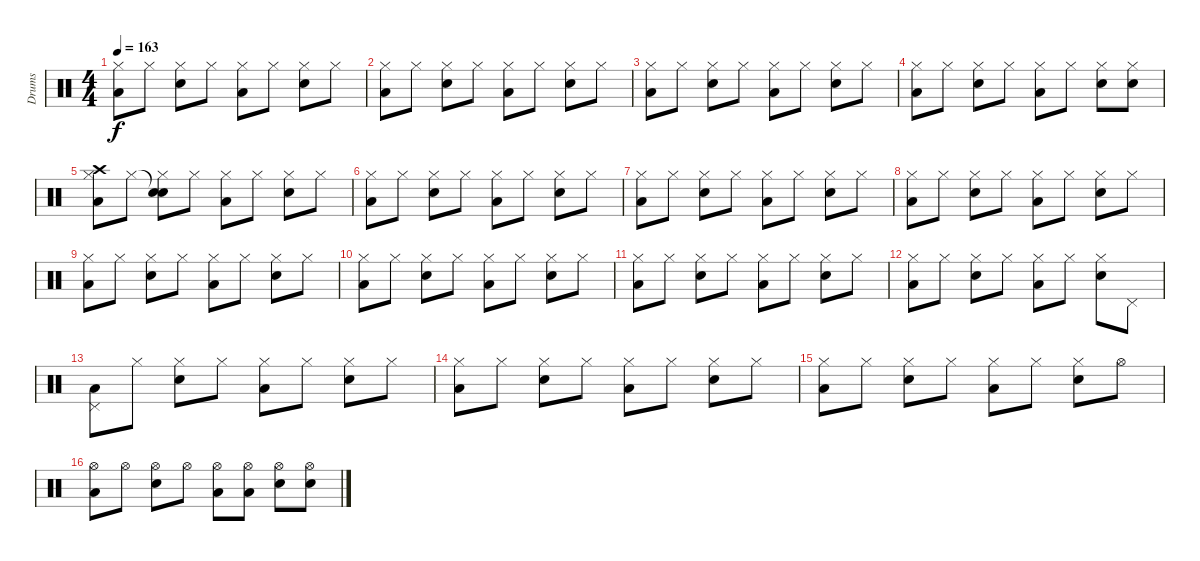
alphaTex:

\track ("Drums" "Drums") {instrument percussion}
\staff {score}
\articulation defaults
\ts (4 4)
\tempo 163
\clef neutral
\ks c
("Low Tom (hit)" "Hi-Hat (closed)").8{dy f} "Hi-Hat (closed)".8 ("Snare (hit) 2" "Hi-Hat (closed)").8 "Hi-Hat (closed)".8 ("Low Tom (hit)" "Hi-Hat (closed)").8 "Hi-Hat (closed)".8 ("Snare (hit) 2" "Hi-Hat (closed)").8 "Hi-Hat (closed)".8 |
("Low Tom (hit)" "Hi-Hat (closed)").8 "Hi-Hat (closed)".8 ("Snare (hit) 2" "Hi-Hat (closed)").8 "Hi-Hat (closed)".8 ("Low Tom (hit)" "Hi-Hat (closed)").8 "Hi-Hat (closed)".8 ("Snare (hit) 2" "Hi-Hat (closed)").8 "Hi-Hat (closed)".8 |
("Low Tom (hit)" "Hi-Hat (closed)").8 "Hi-Hat (closed)".8 ("Snare (hit) 2" "Hi-Hat (closed)").8 "Hi-Hat (closed)".8 ("Low Tom (hit)" "Hi-Hat (closed)").8 "Hi-Hat (closed)".8 ("Snare (hit) 2" "Hi-Hat (closed)").8 "Hi-Hat (closed)".8 |
("Low Tom (hit)" "Hi-Hat (closed)").8 "Hi-Hat (closed)".8 ("Snare (hit) 2" "Hi-Hat (closed)").8 "Hi-Hat (closed)".8 ("Low Tom (hit)" "Hi-Hat (closed)").8 "Hi-Hat (closed)".8 ("Snare (hit) 2" "Hi-Hat (closed)").8 ("Snare (hit) 2" "Hi-Hat (closed)").8 |
("Crash high (hit)" "Low Tom (hit)" "Hi-Hat (closed)").8 "Hi-Hat (closed)".8 ("Snare (hit)"{t} "Snare (hit) 2" "Hi-Hat (closed)").8 "Hi-Hat (closed)".8 ("Low Tom (hit)" "Hi-Hat (closed)").8 "Hi-Hat (closed)".8 ("Snare (hit) 2" "Hi-Hat (closed)").8 "Hi-Hat (closed)".8 |
("Low Tom (hit)" "Hi-Hat (closed)").8 "Hi-Hat (closed)".8 ("Snare (hit) 2" "Hi-Hat (closed)").8 "Hi-Hat (closed)".8 ("Low Tom (hit)" "Hi-Hat (closed)").8 "Hi-Hat (closed)".8 ("Snare (hit) 2" "Hi-Hat (closed)").8 "Hi-Hat (closed)".8 |
("Low Tom (hit)" "Hi-Hat (closed)").8 "Hi-Hat (closed)".8 ("Snare (hit) 2" "Hi-Hat (closed)").8 "Hi-Hat (closed)".8 ("Low Tom (hit)" "Hi-Hat (closed)").8 "Hi-Hat (closed)".8 ("Snare (hit) 2" "Hi-Hat (closed)").8 "Hi-Hat (closed)".8 |
("Low Tom (hit)" "Hi-Hat (closed)").8 "Hi-Hat (closed)".8 ("Snare (hit) 2" "Hi-Hat (closed)").8 "Hi-Hat (closed)".8 ("Low Tom (hit)" "Hi-Hat (closed)").8 "Hi-Hat (closed)".8 ("Snare (hit) 2" "Hi-Hat (closed)").8 "Hi-Hat (closed)".8 |
("Low Tom (hit)" "Hi-Hat (closed)").8 "Hi-Hat (closed)".8 ("Snare (hit) 2" "Hi-Hat (closed)").8 "Hi-Hat (closed)".8 ("Low Tom (hit)" "Hi-Hat (closed)").8 "Hi-Hat (closed)".8 ("Snare (hit) 2" "Hi-Hat (closed)").8 "Hi-Hat (closed)".8 |
("Low Tom (hit)" "Hi-Hat (closed)").8 "Hi-Hat (closed)".8 ("Snare (hit) 2" "Hi-Hat (closed)").8 "Hi-Hat (closed)".8 ("Low Tom (hit)" "Hi-Hat (closed)").8 "Hi-Hat (closed)".8 ("Snare (hit) 2" "Hi-Hat (closed)").8 "Hi-Hat (closed)".8 |
("Low Tom (hit)" "Hi-Hat (closed)").8 "Hi-Hat (closed)".8 ("Snare (hit) 2" "Hi-Hat (closed)").8 "Hi-Hat (closed)".8 ("Low Tom (hit)" "Hi-Hat (closed)").8 "Hi-Hat (closed)".8 ("Snare (hit) 2" "Hi-Hat (closed)").8 "Hi-Hat (closed)".8 |
("Low Tom (hit)" "Hi-Hat (closed)").8 "Hi-Hat (closed)".8 ("Snare (hit) 2" "Hi-Hat (closed)").8 "Hi-Hat (closed)".8 ("Low Tom (hit)" "Hi-Hat (closed)").8 "Hi-Hat (closed)".8 ("Snare (hit) 2" "Hi-Hat (closed)").8 "Pedal Hi-Hat (hit)".8 |
("Low Tom (hit)" "Pedal Hi-Hat (hit)").8 "Hi-Hat (closed)".8 ("Snare (hit) 2" "Hi-Hat (closed)").8 "Hi-Hat (closed)".8 ("Low Tom (hit)" "Hi-Hat (closed)").8 "Hi-Hat (closed)".8 ("Snare (hit) 2" "Hi-Hat (closed)").8 "Hi-Hat (closed)".8 |
("Low Tom (hit)" "Hi-Hat (closed)").8 "Hi-Hat (closed)".8 ("Snare (hit) 2" "Hi-Hat (closed)").8 "Hi-Hat (closed)".8 ("Low Tom (hit)" "Hi-Hat (closed)").8 "Hi-Hat (closed)".8 ("Snare (hit) 2" "Hi-Hat (closed)").8 "Hi-Hat (closed)".8 |
("Low Tom (hit)" "Hi-Hat (closed)").8 "Hi-Hat (closed)".8 ("Snare (hit) 2" "Hi-Hat (closed)").8 "Hi-Hat (closed)".8 ("Low Tom (hit)" "Hi-Hat (closed)").8 "Hi-Hat (closed)".8 ("Snare (hit) 2" "Hi-Hat (closed)").8 "Hi-Hat (open)".8 |
("Low Tom (hit)" "Hi-Hat (open)").8 "Hi-Hat (open)".8 ("Snare (hit) 2" "Hi-Hat (open)").8 "Hi-Hat (open)".8 ("Low Tom (hit)" "Hi-Hat (open)").8 ("Low Tom (hit)" "Hi-Hat (open)").8 ("Snare (hit) 2" "Hi-Hat (open)").8 ("Snare (hit) 2" "Hi-Hat (open)").8
